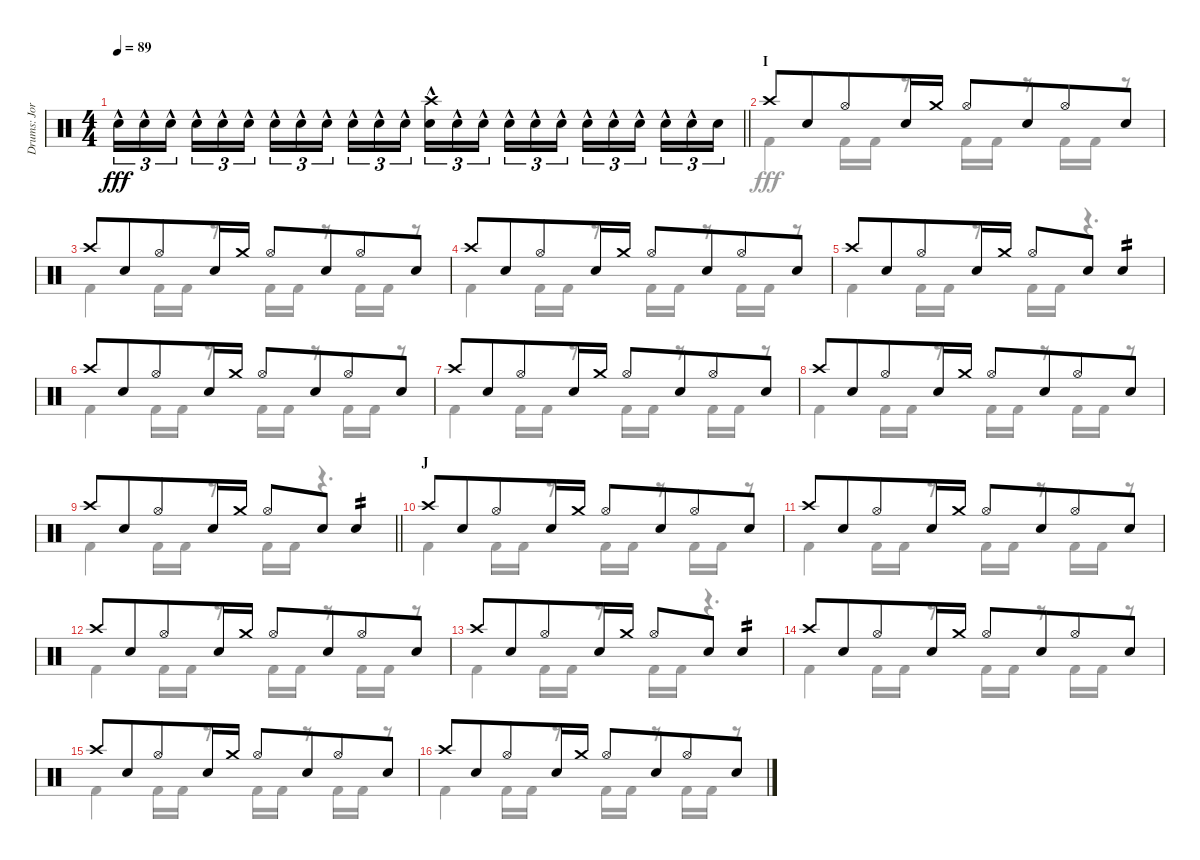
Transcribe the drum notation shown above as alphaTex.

\track ("Drums: Jorg" "Drums: Jor") {instrument percussion}
\staff {score}
\articulation defaults
\voice
\ts (4 4)
\tempo 89
\clef neutral
\barLineRight lightlight
\ks c "Electric Snare (hit)"{hac}.16{tu (3 2) dy fff} "Electric Snare (hit)"{hac}.16{tu (3 2)} "Electric Snare (hit)"{hac}.16{tu (3 2) beam splitsecondary} "Electric Snare (hit)"{hac}.16{tu (3 2)} "Electric Snare (hit)"{hac}.16{tu (3 2)} "Electric Snare (hit)"{hac}.16{tu (3 2)} "Electric Snare (hit)"{hac}.16{tu (3 2)} "Electric Snare (hit)"{hac}.16{tu (3 2)} "Electric Snare (hit)"{hac}.16{tu (3 2) beam splitsecondary} "Electric Snare (hit)"{hac}.16{tu (3 2)} "Electric Snare (hit)"{hac}.16{tu (3 2)} "Electric Snare (hit)"{hac}.16{tu (3 2)}
("Crash high (hit)"{hac} "Snare (hit) 2"{hac}).16{tu (3 2)} "Electric Snare (hit)"{hac}.16{tu (3 2)} "Electric Snare (hit)"{hac}.16{tu (3 2) beam splitsecondary} "Electric Snare (hit)"{hac}.16{tu (3 2)} "Electric Snare (hit)"{hac}.16{tu (3 2)} "Electric Snare (hit)"{hac}.16{tu (3 2)} "Electric Snare (hit)"{hac}.16{tu (3 2)} "Electric Snare (hit)"{hac}.16{tu (3 2)} "Electric Snare (hit)"{hac}.16{tu (3 2) beam splitsecondary} "Electric Snare (hit)"{hac}.16{tu (3 2)} "Electric Snare (hit)"{hac}.16{tu (3 2)} "Electric Snare (hit)".16{tu (3 2)} |
\section ("" "I")
"Crash high (hit)".8 "Snare (hit) 2".8{beam merge} "Hi-Hat (open)".8 "Snare (hit) 2".16{beam merge} "Crash medium (hit)".16 "Hi-Hat (open)".8{beam merge} "Snare (hit) 2".8{beam merge} "Hi-Hat (open)".8 "Snare (hit) 2".8 |
"Crash high (hit)".8 "Snare (hit) 2".8{beam merge} "Hi-Hat (open)".8 "Snare (hit) 2".16{beam merge} "Crash medium (hit)".16 "Hi-Hat (open)".8{beam merge} "Snare (hit) 2".8{beam merge} "Hi-Hat (open)".8 "Snare (hit) 2".8 |
"Crash high (hit)".8 "Snare (hit) 2".8{beam merge} "Hi-Hat (open)".8 "Snare (hit) 2".16{beam merge} "Crash medium (hit)".16 "Hi-Hat (open)".8{beam merge} "Snare (hit) 2".8{beam merge} "Hi-Hat (open)".8 "Snare (hit) 2".8 |
"Crash high (hit)".8 "Snare (hit) 2".8{beam merge} "Hi-Hat (open)".8 "Snare (hit) 2".16{beam merge} "Crash medium (hit)".16 "Hi-Hat (open)".8{beam merge} "Snare (hit) 2".8 "Snare (hit) 2".4{tp 2} |
"Crash high (hit)".8 "Snare (hit) 2".8{beam merge} "Hi-Hat (open)".8 "Snare (hit) 2".16{beam merge} "Crash medium (hit)".16 "Hi-Hat (open)".8{beam merge} "Snare (hit) 2".8{beam merge} "Hi-Hat (open)".8 "Snare (hit) 2".8 |
"Crash high (hit)".8 "Snare (hit) 2".8{beam merge} "Hi-Hat (open)".8 "Snare (hit) 2".16{beam merge} "Crash medium (hit)".16 "Hi-Hat (open)".8{beam merge} "Snare (hit) 2".8{beam merge} "Hi-Hat (open)".8 "Snare (hit) 2".8 |
"Crash high (hit)".8 "Snare (hit) 2".8{beam merge} "Hi-Hat (open)".8 "Snare (hit) 2".16{beam merge} "Crash medium (hit)".16 "Hi-Hat (open)".8{beam merge} "Snare (hit) 2".8{beam merge} "Hi-Hat (open)".8 "Snare (hit) 2".8 |
\barLineRight lightlight "Crash high (hit)".8 "Snare (hit) 2".8{beam merge} "Hi-Hat (open)".8 "Snare (hit) 2".16{beam merge} "Crash medium (hit)".16 "Hi-Hat (open)".8{beam merge} "Snare (hit) 2".8 "Snare (hit) 2".4{tp 2}
|
\section ("" "J")
"Crash high (hit)".8 "Snare (hit) 2".8{beam merge} "Hi-Hat (open)".8 "Snare (hit) 2".16{beam merge} "Crash medium (hit)".16 "Hi-Hat (open)".8{beam merge} "Snare (hit) 2".8{beam merge} "Hi-Hat (open)".8 "Snare (hit) 2".8 |
"Crash high (hit)".8 "Snare (hit) 2".8{beam merge} "Hi-Hat (open)".8 "Snare (hit) 2".16{beam merge} "Crash medium (hit)".16 "Hi-Hat (open)".8{beam merge} "Snare (hit) 2".8{beam merge} "Hi-Hat (open)".8 "Snare (hit) 2".8 |
"Crash high (hit)".8 "Snare (hit) 2".8{beam merge} "Hi-Hat (open)".8 "Snare (hit) 2".16{beam merge} "Crash medium (hit)".16 "Hi-Hat (open)".8{beam merge} "Snare (hit) 2".8{beam merge} "Hi-Hat (open)".8 "Snare (hit) 2".8 |
"Crash high (hit)".8 "Snare (hit) 2".8{beam merge} "Hi-Hat (open)".8 "Snare (hit) 2".16{beam merge} "Crash medium (hit)".16 "Hi-Hat (open)".8{beam merge} "Snare (hit) 2".8 "Snare (hit) 2".4{tp 2} |
"Crash high (hit)".8 "Snare (hit) 2".8{beam merge} "Hi-Hat (open)".8 "Snare (hit) 2".16{beam merge} "Crash medium (hit)".16 "Hi-Hat (open)".8{beam merge} "Snare (hit) 2".8{beam merge} "Hi-Hat (open)".8 "Snare (hit) 2".8 |
"Crash high (hit)".8 "Snare (hit) 2".8{beam merge} "Hi-Hat (open)".8 "Snare (hit) 2".16{beam merge} "Crash medium (hit)".16 "Hi-Hat (open)".8{beam merge} "Snare (hit) 2".8{beam merge} "Hi-Hat (open)".8 "Snare (hit) 2".8 |
"Crash high (hit)".8 "Snare (hit) 2".8{beam merge} "Hi-Hat (open)".8 "Snare (hit) 2".16{beam merge} "Crash medium (hit)".16 "Hi-Hat (open)".8{beam merge} "Snare (hit) 2".8{beam merge} "Hi-Hat (open)".8 "Snare (hit) 2".8
\voice
\clef neutral
\ottava regular
\simile none
\barLineRight lightlight
\ks c
|
"Kick (hit) 2".4 "Kick (hit) 2".16 "Kick (hit) 2".16 r.8 "Kick (hit) 2".16 "Kick (hit) 2".16 r.8 "Kick (hit) 2".16 "Kick (hit) 2".16 r.8 |
"Kick (hit) 2".4 "Kick (hit) 2".16 "Kick (hit) 2".16 r.8 "Kick (hit) 2".16 "Kick (hit) 2".16 r.8 "Kick (hit) 2".16 "Kick (hit) 2".16 r.8 |
"Kick (hit) 2".4 "Kick (hit) 2".16 "Kick (hit) 2".16 r.8 "Kick (hit) 2".16 "Kick (hit) 2".16 r.8 "Kick (hit) 2".16 "Kick (hit) 2".16 r.8 |
"Kick (hit) 2".4 "Kick (hit) 2".16 "Kick (hit) 2".16 r.8 "Kick (hit) 2".16 "Kick (hit) 2".16 r.4{d} |
"Kick (hit) 2".4 "Kick (hit) 2".16 "Kick (hit) 2".16 r.8 "Kick (hit) 2".16 "Kick (hit) 2".16 r.8 "Kick (hit) 2".16 "Kick (hit) 2".16 r.8 |
"Kick (hit) 2".4 "Kick (hit) 2".16 "Kick (hit) 2".16 r.8 "Kick (hit) 2".16 "Kick (hit) 2".16 r.8 "Kick (hit) 2".16 "Kick (hit) 2".16 r.8 |
"Kick (hit) 2".4 "Kick (hit) 2".16 "Kick (hit) 2".16 r.8 "Kick (hit) 2".16 "Kick (hit) 2".16 r.8 "Kick (hit) 2".16 "Kick (hit) 2".16 r.8 |
\barLineRight lightlight "Kick (hit) 2".4 "Kick (hit) 2".16 "Kick (hit) 2".16
r.8 "Kick (hit) 2".16 "Kick (hit) 2".16 r.4{d} |
"Kick (hit) 2".4 "Kick (hit) 2".16 "Kick (hit) 2".16 r.8 "Kick (hit) 2".16 "Kick (hit) 2".16 r.8 "Kick (hit) 2".16 "Kick (hit) 2".16 r.8 |
"Kick (hit) 2".4 "Kick (hit) 2".16 "Kick (hit) 2".16 r.8 "Kick (hit) 2".16 "Kick (hit) 2".16 r.8 "Kick (hit) 2".16 "Kick (hit) 2".16 r.8 |
"Kick (hit) 2".4 "Kick (hit) 2".16 "Kick (hit) 2".16 r.8 "Kick (hit) 2".16 "Kick (hit) 2".16 r.8 "Kick (hit) 2".16 "Kick (hit) 2".16 r.8 |
"Kick (hit) 2".4 "Kick (hit) 2".16 "Kick (hit) 2".16 r.8 "Kick (hit) 2".16 "Kick (hit) 2".16 r.4{d} |
"Kick (hit) 2".4 "Kick (hit) 2".16 "Kick (hit) 2".16 r.8 "Kick (hit) 2".16 "Kick (hit) 2".16 r.8 "Kick (hit) 2".16 "Kick (hit) 2".16 r.8 |
"Kick (hit) 2".4 "Kick (hit) 2".16 "Kick (hit) 2".16 r.8 "Kick (hit) 2".16 "Kick (hit) 2".16 r.8 "Kick (hit) 2".16 "Kick (hit) 2".16 r.8 |
"Kick (hit) 2".4 "Kick (hit) 2".16 "Kick (hit) 2".16 r.8 "Kick (hit) 2".16 "Kick (hit) 2".16 r.8 "Kick (hit) 2".16 "Kick (hit) 2".16 r.8
